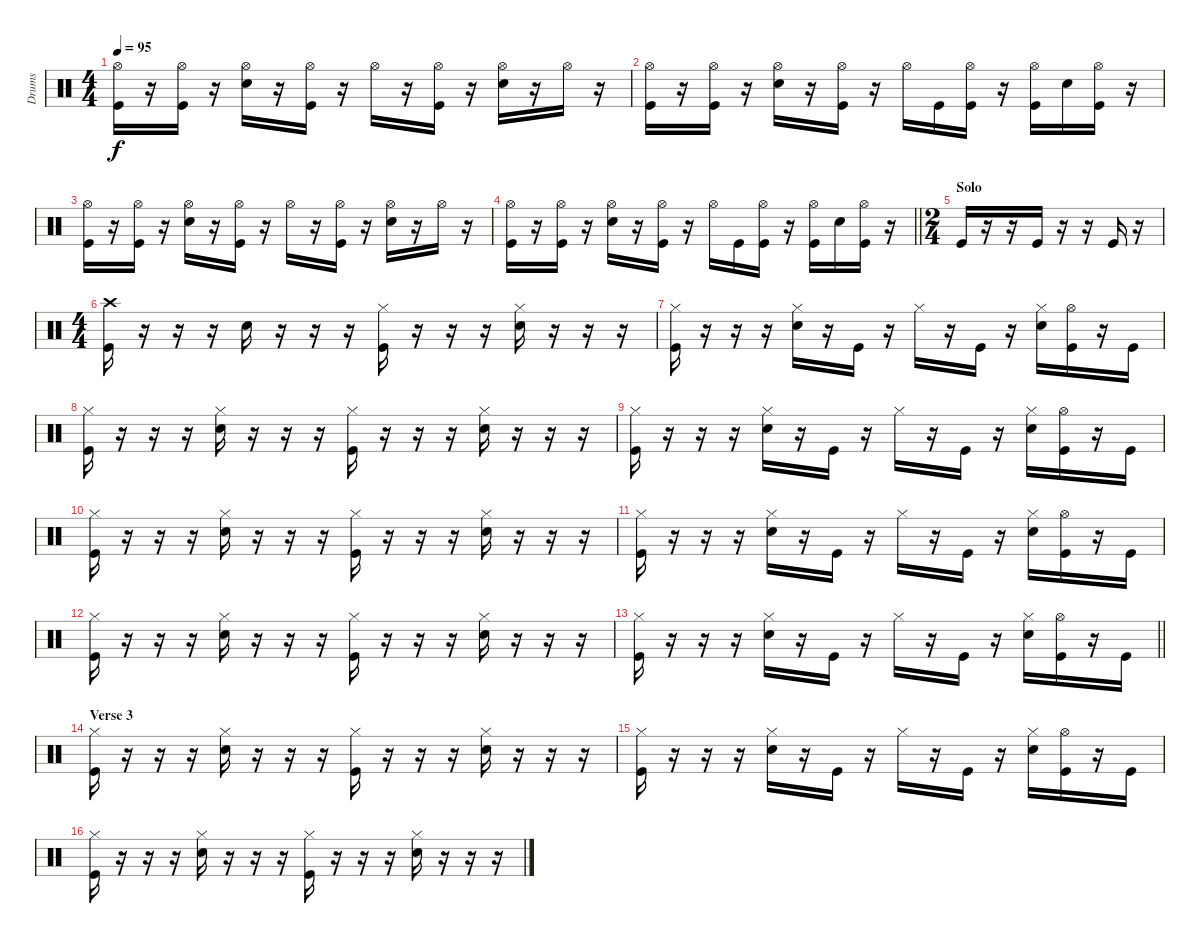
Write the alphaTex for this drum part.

\track ("Drums" "Drums") {instrument percussion bank 177}
\staff {score}
\articulation defaults
\ts (4 4)
\tempo 95
\clef neutral
\ks c
("Hi-Hat (open)" "Kick (hit)").16{dy f} r.16 ("Hi-Hat (open)" "Kick (hit)").16 r.16 ("Hi-Hat (open)" "Snare (hit) 2").16 r.16 ("Hi-Hat (open)" "Kick (hit)").16 r.16 "Hi-Hat (open)".16 r.16 ("Hi-Hat (open)" "Kick (hit)").16 r.16 ("Hi-Hat (open)" "Snare (hit) 2").16 r.16 "Hi-Hat (open)".16 r.16 |
("Hi-Hat (open)" "Kick (hit)").16 r.16 ("Hi-Hat (open)" "Kick (hit)").16 r.16 ("Hi-Hat (open)" "Snare (hit) 2").16 r.16 ("Hi-Hat (open)" "Kick (hit)").16 r.16 "Hi-Hat (open)".16 "Kick (hit)".16 ("Hi-Hat (open)" "Kick (hit)").16 r.16 ("Hi-Hat (open)" "Kick (hit)").16 "Snare (hit) 2".16 ("Hi-Hat (open)" "Kick (hit)").16 r.16 |
("Hi-Hat (open)" "Kick (hit)").16 r.16 ("Hi-Hat (open)" "Kick (hit)").16 r.16 ("Hi-Hat (open)" "Snare (hit) 2").16 r.16 ("Hi-Hat (open)" "Kick (hit)").16 r.16 "Hi-Hat (open)".16 r.16 ("Hi-Hat (open)" "Kick (hit)").16 r.16 ("Hi-Hat (open)" "Snare (hit) 2").16 r.16 "Hi-Hat (open)".16 r.16 |
\barLineRight lightlight
("Hi-Hat (open)" "Kick (hit)").16 r.16 ("Hi-Hat (open)" "Kick (hit)").16 r.16 ("Hi-Hat (open)" "Snare (hit) 2").16 r.16 ("Hi-Hat (open)" "Kick (hit)").16 r.16 "Hi-Hat (open)".16 "Kick (hit)".16 ("Hi-Hat (open)" "Kick (hit)").16 r.16 ("Hi-Hat (open)" "Kick (hit)").16 "Snare (hit) 2".16 ("Hi-Hat (open)" "Kick (hit)").16 r.16 |
\ts (2 4)
\section ("" "Solo")
"Kick (hit)".16 r.16 r.16 "Kick (hit)".16 r.16 r.16 "Kick (hit)".16 r.16 |
\ts (4 4)
("Crash high (hit)" "Kick (hit)").16 r.16 r.16 r.16 "Snare (hit) 2".16 r.16 r.16 r.16 ("Hi-Hat (closed)" "Kick (hit)").16 r.16 r.16 r.16 ("Hi-Hat (closed)" "Snare (hit) 2").16 r.16 r.16 r.16 |
("Hi-Hat (closed)" "Kick (hit)").16 r.16 r.16 r.16 ("Hi-Hat (closed)" "Snare (hit) 2").16 r.16 "Kick (hit)".16 r.16 "Hi-Hat (closed)".16 r.16 "Kick (hit)".16 r.16 ("Hi-Hat (closed)" "Snare (hit) 2").16 ("Hi-Hat (open)" "Kick (hit)").16 r.16 "Kick (hit)".16 |
("Hi-Hat (closed)" "Kick (hit)").16 r.16 r.16 r.16 ("Hi-Hat (closed)" "Snare (hit) 2").16 r.16 r.16 r.16 ("Hi-Hat (closed)" "Kick (hit)").16 r.16 r.16 r.16 ("Hi-Hat (closed)" "Snare (hit) 2").16 r.16 r.16 r.16 |
("Hi-Hat (closed)" "Kick (hit)").16 r.16 r.16 r.16 ("Hi-Hat (closed)" "Snare (hit) 2").16 r.16 "Kick (hit)".16 r.16 "Hi-Hat (closed)".16 r.16 "Kick (hit)".16 r.16 ("Hi-Hat (closed)" "Snare (hit) 2").16 ("Hi-Hat (open)" "Kick (hit)").16 r.16 "Kick (hit)".16 |
("Hi-Hat (closed)" "Kick (hit)").16 r.16 r.16 r.16 ("Hi-Hat (closed)" "Snare (hit) 2").16 r.16 r.16 r.16 ("Hi-Hat (closed)" "Kick (hit)").16 r.16 r.16 r.16 ("Hi-Hat (closed)" "Snare (hit) 2").16 r.16 r.16 r.16 |
("Hi-Hat (closed)" "Kick (hit)").16 r.16 r.16 r.16 ("Hi-Hat (closed)" "Snare (hit) 2").16 r.16 "Kick (hit)".16 r.16 "Hi-Hat (closed)".16 r.16 "Kick (hit)".16 r.16 ("Hi-Hat (closed)" "Snare (hit) 2").16 ("Hi-Hat (open)" "Kick (hit)").16 r.16 "Kick (hit)".16 |
("Hi-Hat (closed)" "Kick (hit)").16 r.16 r.16 r.16 ("Hi-Hat (closed)" "Snare (hit) 2").16 r.16 r.16 r.16 ("Hi-Hat (closed)" "Kick (hit)").16 r.16 r.16 r.16 ("Hi-Hat (closed)" "Snare (hit) 2").16 r.16 r.16 r.16 |
\barLineRight lightlight
("Hi-Hat (closed)" "Kick (hit)").16 r.16 r.16 r.16 ("Hi-Hat (closed)" "Snare (hit) 2").16 r.16 "Kick (hit)".16 r.16 "Hi-Hat (closed)".16 r.16 "Kick (hit)".16 r.16 ("Hi-Hat (closed)" "Snare (hit) 2").16 ("Hi-Hat (open)" "Kick (hit)").16 r.16 "Kick (hit)".16 |
\section ("" "Verse 3")
("Hi-Hat (closed)" "Kick (hit)").16 r.16 r.16 r.16 ("Hi-Hat (closed)" "Snare (hit) 2").16 r.16 r.16 r.16 ("Hi-Hat (closed)" "Kick (hit)").16 r.16 r.16 r.16 ("Hi-Hat (closed)" "Snare (hit) 2").16 r.16 r.16 r.16 |
("Hi-Hat (closed)" "Kick (hit)").16 r.16 r.16 r.16 ("Hi-Hat (closed)" "Snare (hit) 2").16 r.16 "Kick (hit)".16 r.16 "Hi-Hat (closed)".16 r.16 "Kick (hit)".16 r.16 ("Hi-Hat (closed)" "Snare (hit) 2").16 ("Hi-Hat (open)" "Kick (hit)").16 r.16 "Kick (hit)".16 |
("Hi-Hat (closed)" "Kick (hit)").16 r.16 r.16 r.16 ("Hi-Hat (closed)" "Snare (hit) 2").16 r.16 r.16 r.16 ("Hi-Hat (closed)" "Kick (hit)").16 r.16 r.16 r.16 ("Hi-Hat (closed)" "Snare (hit) 2").16 r.16 r.16 r.16
